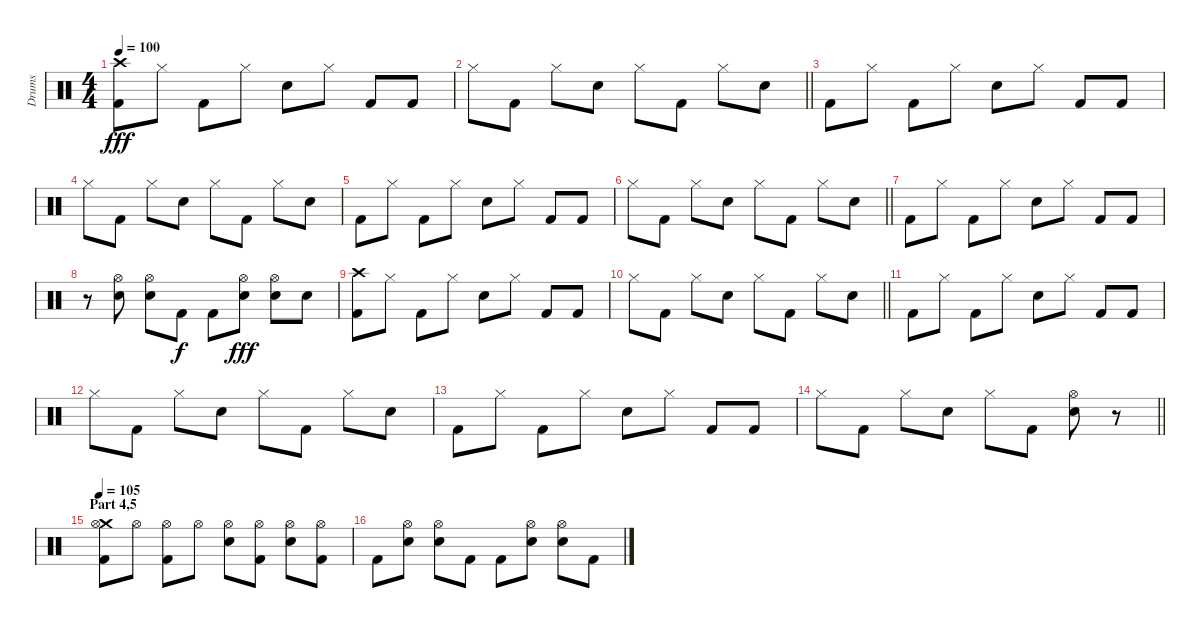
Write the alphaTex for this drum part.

\track ("Drums" "Drums") {instrument percussion}
\staff {score}
\articulation defaults
\ts (4 4)
\tempo 100
\clef neutral
\ks c
("Crash high (hit)" "Kick (hit) 2").8{dy fff} "Hi-Hat (closed)".8 "Kick (hit) 2".8 "Hi-Hat (closed)".8 "Electric Snare (hit)".8 "Hi-Hat (closed)".8 "Kick (hit) 2".8 "Kick (hit) 2".8 |
\barLineRight lightlight "Hi-Hat (closed)".8 "Kick (hit) 2".8 "Hi-Hat (closed)".8 "Electric Snare (hit)".8 "Hi-Hat (closed)".8 "Kick (hit) 2".8 "Hi-Hat (closed)".8 "Electric Snare (hit)".8
|
"Kick (hit) 2".8 "Hi-Hat (closed)".8 "Kick (hit) 2".8 "Hi-Hat (closed)".8 "Electric Snare (hit)".8 "Hi-Hat (closed)".8 "Kick (hit) 2".8 "Kick (hit) 2".8 |
"Hi-Hat (closed)".8 "Kick (hit) 2".8 "Hi-Hat (closed)".8 "Electric Snare (hit)".8 "Hi-Hat (closed)".8 "Kick (hit) 2".8 "Hi-Hat (closed)".8 "Electric Snare (hit)".8 |
"Kick (hit) 2".8 "Hi-Hat (closed)".8 "Kick (hit) 2".8 "Hi-Hat (closed)".8 "Electric Snare (hit)".8 "Hi-Hat (closed)".8 "Kick (hit) 2".8 "Kick (hit) 2".8 |
\barLineRight lightlight "Hi-Hat (closed)".8 "Kick (hit) 2".8 "Hi-Hat (closed)".8 "Electric Snare (hit)".8 "Hi-Hat (closed)".8 "Kick (hit) 2".8 "Hi-Hat (closed)".8 "Electric Snare (hit)".8
|
"Kick (hit) 2".8 "Hi-Hat (closed)".8 "Kick (hit) 2".8 "Hi-Hat (closed)".8 "Electric Snare (hit)".8 "Hi-Hat (closed)".8 "Kick (hit) 2".8 "Kick (hit) 2".8 |
r.8 ("Hi-Hat (open)" "Electric Snare (hit)").8 ("Hi-Hat (open)" "Electric Snare (hit)").8 "Kick (hit) 2".8{dy f} "Kick (hit) 2".8 ("Hi-Hat (open)" "Electric Snare (hit)").8{dy fff} ("Hi-Hat (open)" "Electric Snare (hit)").8 "Electric Snare (hit)".8 |
("Crash high (hit)" "Kick (hit) 2").8 "Hi-Hat (closed)".8 "Kick (hit) 2".8 "Hi-Hat (closed)".8 "Electric Snare (hit)".8 "Hi-Hat (closed)".8 "Kick (hit) 2".8 "Kick (hit) 2".8 |
\barLineRight lightlight "Hi-Hat (closed)".8 "Kick (hit) 2".8 "Hi-Hat (closed)".8 "Electric Snare (hit)".8 "Hi-Hat (closed)".8 "Kick (hit) 2".8 "Hi-Hat (closed)".8 "Electric Snare (hit)".8
|
"Kick (hit) 2".8 "Hi-Hat (closed)".8 "Kick (hit) 2".8 "Hi-Hat (closed)".8 "Electric Snare (hit)".8 "Hi-Hat (closed)".8 "Kick (hit) 2".8 "Kick (hit) 2".8 |
"Hi-Hat (closed)".8 "Kick (hit) 2".8 "Hi-Hat (closed)".8 "Electric Snare (hit)".8 "Hi-Hat (closed)".8 "Kick (hit) 2".8 "Hi-Hat (closed)".8 "Electric Snare (hit)".8 |
"Kick (hit) 2".8 "Hi-Hat (closed)".8 "Kick (hit) 2".8 "Hi-Hat (closed)".8 "Electric Snare (hit)".8 "Hi-Hat (closed)".8 "Kick (hit) 2".8 "Kick (hit) 2".8 |
\barLineRight lightlight "Hi-Hat (closed)".8 "Kick (hit) 2".8 "Hi-Hat (closed)".8 "Electric Snare (hit)".8 "Hi-Hat (closed)".8 "Kick (hit) 2".8
("Hi-Hat (open)" "Electric Snare (hit)").8 r.8 |
\section ("" "Part 4,5")
\tempo 105
("Crash medium (hit)" "Hi-Hat (open)" "Kick (hit) 2").8 "Hi-Hat (open)".8 ("Hi-Hat (open)" "Kick (hit) 2").8 "Hi-Hat (open)".8 ("Hi-Hat (open)" "Electric Snare (hit)").8 ("Hi-Hat (open)" "Kick (hit) 2").8 ("Hi-Hat (open)" "Electric Snare (hit)").8 ("Hi-Hat (open)" "Kick (hit) 2").8 |
"Kick (hit) 2".8 ("Hi-Hat (open)" "Electric Snare (hit)").8 ("Hi-Hat (open)" "Electric Snare (hit)").8 "Kick (hit) 2".8 "Kick (hit) 2".8 ("Hi-Hat (open)" "Electric Snare (hit)").8 ("Hi-Hat (open)" "Electric Snare (hit)").8 "Kick (hit) 2".8
